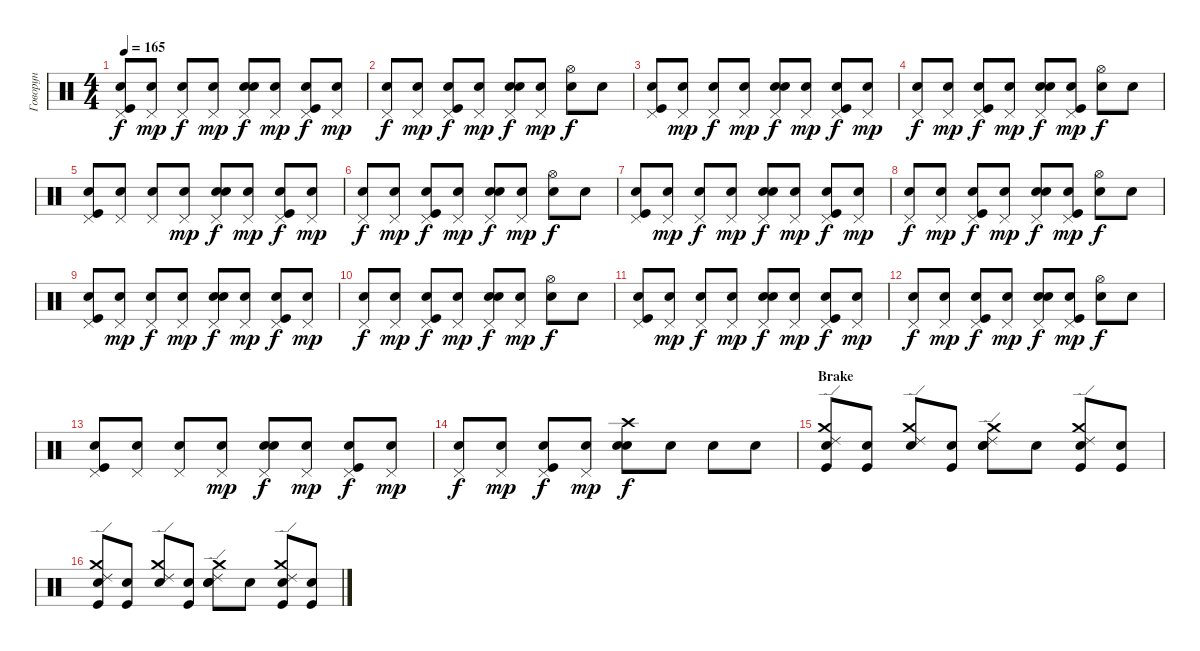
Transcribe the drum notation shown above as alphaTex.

\track ("Говорун" "Говорун") {instrument percussion}
\staff {score}
\articulation defaults
\ts (4 4)
\tempo 165
\clef neutral
\ks c
("Pedal Hi-Hat (hit)" "Kick (hit)" "Snare (hit)"{x}).8{dy f} ("Pedal Hi-Hat (hit)" "Snare (hit)"{x}).8{dy mp} ("Pedal Hi-Hat (hit)" "Snare (hit)"{x}).8{dy f} ("Pedal Hi-Hat (hit)" "Snare (hit)"{x}).8{dy mp} ("Pedal Hi-Hat (hit)" "Snare (hit) 2" "Snare (hit)"{x}).8{dy f} ("Pedal Hi-Hat (hit)" "Snare (hit)"{x}).8{dy mp} ("Pedal Hi-Hat (hit)" "Kick (hit)" "Snare (hit)"{x}).8{dy f} ("Pedal Hi-Hat (hit)" "Snare (hit)"{x}).8{dy mp} |
("Pedal Hi-Hat (hit)" "Snare (hit)"{x}).8{dy f} ("Pedal Hi-Hat (hit)" "Snare (hit)"{x}).8{dy mp} ("Pedal Hi-Hat (hit)" "Kick (hit)" "Snare (hit)"{x}).8{dy f} ("Pedal Hi-Hat (hit)" "Snare (hit)"{x}).8{dy mp} ("Pedal Hi-Hat (hit)" "Snare (hit) 2" "Snare (hit)"{x}).8{dy f} ("Pedal Hi-Hat (hit)" "Snare (hit)"{x}).8{dy mp} ("Hi-Hat (open)" "Snare (hit)"{x}).8{dy f} "Snare (hit)"{x}.8 |
("Pedal Hi-Hat (hit)" "Kick (hit)" "Snare (hit)"{x}).8 ("Pedal Hi-Hat (hit)" "Snare (hit)"{x}).8{dy mp} ("Pedal Hi-Hat (hit)" "Snare (hit)"{x}).8{dy f} ("Pedal Hi-Hat (hit)" "Snare (hit)"{x}).8{dy mp} ("Pedal Hi-Hat (hit)" "Snare (hit) 2" "Snare (hit)"{x}).8{dy f} ("Pedal Hi-Hat (hit)" "Snare (hit)"{x}).8{dy mp} ("Pedal Hi-Hat (hit)" "Kick (hit)" "Snare (hit)"{x}).8{dy f} ("Pedal Hi-Hat (hit)" "Snare (hit)"{x}).8{dy mp} |
("Pedal Hi-Hat (hit)" "Snare (hit)"{x}).8{dy f} ("Pedal Hi-Hat (hit)" "Snare (hit)"{x}).8{dy mp} ("Pedal Hi-Hat (hit)" "Kick (hit)" "Snare (hit)"{x}).8{dy f} ("Pedal Hi-Hat (hit)" "Snare (hit)"{x}).8{dy mp} ("Pedal Hi-Hat (hit)" "Snare (hit) 2" "Snare (hit)"{x}).8{dy f} ("Pedal Hi-Hat (hit)" "Kick (hit)" "Snare (hit)"{x}).8{dy mp} ("Hi-Hat (open)" "Snare (hit)"{x}).8{dy f} "Snare (hit)"{x}.8 |
("Pedal Hi-Hat (hit)" "Kick (hit)" "Snare (hit)"{x}).8 ("Pedal Hi-Hat (hit)" "Snare (hit)"{x}).8 ("Pedal Hi-Hat (hit)" "Snare (hit)"{x}).8 ("Pedal Hi-Hat (hit)" "Snare (hit)"{x}).8{dy mp} ("Pedal Hi-Hat (hit)" "Snare (hit) 2" "Snare (hit)"{x}).8{dy f} ("Pedal Hi-Hat (hit)" "Snare (hit)"{x}).8{dy mp} ("Pedal Hi-Hat (hit)" "Kick (hit)" "Snare (hit)"{x}).8{dy f} ("Pedal Hi-Hat (hit)" "Snare (hit)"{x}).8{dy mp} |
("Pedal Hi-Hat (hit)" "Snare (hit)"{x}).8{dy f} ("Pedal Hi-Hat (hit)" "Snare (hit)"{x}).8{dy mp} ("Pedal Hi-Hat (hit)" "Kick (hit)" "Snare (hit)"{x}).8{dy f} ("Pedal Hi-Hat (hit)" "Snare (hit)"{x}).8{dy mp} ("Pedal Hi-Hat (hit)" "Snare (hit) 2" "Snare (hit)"{x}).8{dy f} ("Pedal Hi-Hat (hit)" "Snare (hit)"{x}).8{dy mp} ("Hi-Hat (open)" "Snare (hit)"{x}).8{dy f} "Snare (hit)"{x}.8 |
("Pedal Hi-Hat (hit)" "Kick (hit)" "Snare (hit)"{x}).8 ("Pedal Hi-Hat (hit)" "Snare (hit)"{x}).8{dy mp} ("Pedal Hi-Hat (hit)" "Snare (hit)"{x}).8{dy f} ("Pedal Hi-Hat (hit)" "Snare (hit)"{x}).8{dy mp} ("Pedal Hi-Hat (hit)" "Snare (hit) 2" "Snare (hit)"{x}).8{dy f} ("Pedal Hi-Hat (hit)" "Snare (hit)"{x}).8{dy mp} ("Pedal Hi-Hat (hit)" "Kick (hit)" "Snare (hit)"{x}).8{dy f} ("Pedal Hi-Hat (hit)" "Snare (hit)"{x}).8{dy mp} |
("Pedal Hi-Hat (hit)" "Snare (hit)"{x}).8{dy f} ("Pedal Hi-Hat (hit)" "Snare (hit)"{x}).8{dy mp} ("Pedal Hi-Hat (hit)" "Kick (hit)" "Snare (hit)"{x}).8{dy f} ("Pedal Hi-Hat (hit)" "Snare (hit)"{x}).8{dy mp} ("Pedal Hi-Hat (hit)" "Snare (hit) 2" "Snare (hit)"{x}).8{dy f} ("Pedal Hi-Hat (hit)" "Kick (hit)" "Snare (hit)"{x}).8{dy mp} ("Hi-Hat (open)" "Snare (hit)"{x}).8{dy f} "Snare (hit)"{x}.8 |
("Pedal Hi-Hat (hit)" "Kick (hit)" "Snare (hit)"{x}).8 ("Pedal Hi-Hat (hit)" "Snare (hit)"{x}).8{dy mp} ("Pedal Hi-Hat (hit)" "Snare (hit)"{x}).8{dy f} ("Pedal Hi-Hat (hit)" "Snare (hit)"{x}).8{dy mp} ("Pedal Hi-Hat (hit)" "Snare (hit) 2" "Snare (hit)"{x}).8{dy f} ("Pedal Hi-Hat (hit)" "Snare (hit)"{x}).8{dy mp} ("Pedal Hi-Hat (hit)" "Kick (hit)" "Snare (hit)"{x}).8{dy f} ("Pedal Hi-Hat (hit)" "Snare (hit)"{x}).8{dy mp} |
("Pedal Hi-Hat (hit)" "Snare (hit)"{x}).8{dy f} ("Pedal Hi-Hat (hit)" "Snare (hit)"{x}).8{dy mp} ("Pedal Hi-Hat (hit)" "Kick (hit)" "Snare (hit)"{x}).8{dy f} ("Pedal Hi-Hat (hit)" "Snare (hit)"{x}).8{dy mp} ("Pedal Hi-Hat (hit)" "Snare (hit) 2" "Snare (hit)"{x}).8{dy f} ("Pedal Hi-Hat (hit)" "Snare (hit)"{x}).8{dy mp} ("Hi-Hat (open)" "Snare (hit)"{x}).8{dy f} "Snare (hit)"{x}.8 |
("Pedal Hi-Hat (hit)" "Kick (hit)" "Snare (hit)"{x}).8 ("Pedal Hi-Hat (hit)" "Snare (hit)"{x}).8{dy mp} ("Pedal Hi-Hat (hit)" "Snare (hit)"{x}).8{dy f} ("Pedal Hi-Hat (hit)" "Snare (hit)"{x}).8{dy mp} ("Pedal Hi-Hat (hit)" "Snare (hit) 2" "Snare (hit)"{x}).8{dy f} ("Pedal Hi-Hat (hit)" "Snare (hit)"{x}).8{dy mp} ("Pedal Hi-Hat (hit)" "Kick (hit)" "Snare (hit)"{x}).8{dy f} ("Pedal Hi-Hat (hit)" "Snare (hit)"{x}).8{dy mp} |
("Pedal Hi-Hat (hit)" "Snare (hit)"{x}).8{dy f} ("Pedal Hi-Hat (hit)" "Snare (hit)"{x}).8{dy mp} ("Pedal Hi-Hat (hit)" "Kick (hit)" "Snare (hit)"{x}).8{dy f} ("Pedal Hi-Hat (hit)" "Snare (hit)"{x}).8{dy mp} ("Pedal Hi-Hat (hit)" "Snare (hit) 2" "Snare (hit)"{x}).8{dy f} ("Pedal Hi-Hat (hit)" "Kick (hit)" "Snare (hit)"{x}).8{dy mp} ("Hi-Hat (open)" "Snare (hit)"{x}).8{dy f} "Snare (hit)"{x}.8 |
("Pedal Hi-Hat (hit)" "Kick (hit)" "Snare (hit)"{x}).8 ("Pedal Hi-Hat (hit)" "Snare (hit)"{x}).8 ("Pedal Hi-Hat (hit)" "Snare (hit)"{x}).8 ("Pedal Hi-Hat (hit)" "Snare (hit)"{x}).8{dy mp} ("Pedal Hi-Hat (hit)" "Snare (hit) 2" "Snare (hit)"{x}).8{dy f} ("Pedal Hi-Hat (hit)" "Snare (hit)"{x}).8{dy mp} ("Pedal Hi-Hat (hit)" "Kick (hit)" "Snare (hit)"{x}).8{dy f} ("Pedal Hi-Hat (hit)" "Snare (hit)"{x}).8{dy mp} |
("Pedal Hi-Hat (hit)" "Snare (hit)"{x}).8{dy f} ("Pedal Hi-Hat (hit)" "Snare (hit)"{x}).8{dy mp} ("Pedal Hi-Hat (hit)" "Kick (hit)" "Snare (hit)"{x}).8{dy f} ("Pedal Hi-Hat (hit)" "Snare (hit)"{x}).8{dy mp} ("Crash high (hit)" "Snare (hit) 2" "Snare (hit)"{x}).8{dy f} "Snare (hit)"{x}.8 "Snare (hit)"{x}.8 "Snare (hit)"{x}.8 |
\section ("" "Brake")
("Crash medium (hit)" "Ride (edge) 2" "Kick (hit)" "Snare (hit)"{x}).8 ("Kick (hit)" "Snare (hit)"{x}).8 ("Crash medium (hit)" "Ride (edge) 2" "Snare (hit)"{x}).8 ("Kick (hit)" "Snare (hit)"{x}).8 ("Crash medium (hit)" "Ride (edge) 2" "Snare (hit) 2" "Snare (hit)"{x}).8 "Snare (hit)"{x}.8 ("Crash medium (hit)" "Ride (edge) 2" "Kick (hit)" "Snare (hit)"{x}).8 ("Kick (hit)" "Snare (hit)"{x}).8 |
("Crash medium (hit)" "Ride (edge) 2" "Kick (hit)" "Snare (hit)"{x}).8 ("Kick (hit)" "Snare (hit)"{x}).8 ("Crash medium (hit)" "Ride (edge) 2" "Snare (hit)"{x}).8 ("Kick (hit)" "Snare (hit)"{x}).8 ("Crash medium (hit)" "Ride (edge) 2" "Snare (hit) 2" "Snare (hit)"{x}).8 "Snare (hit)"{x}.8 ("Crash medium (hit)" "Ride (edge) 2" "Kick (hit)" "Snare (hit)"{x}).8 ("Kick (hit)" "Snare (hit)"{x}).8
